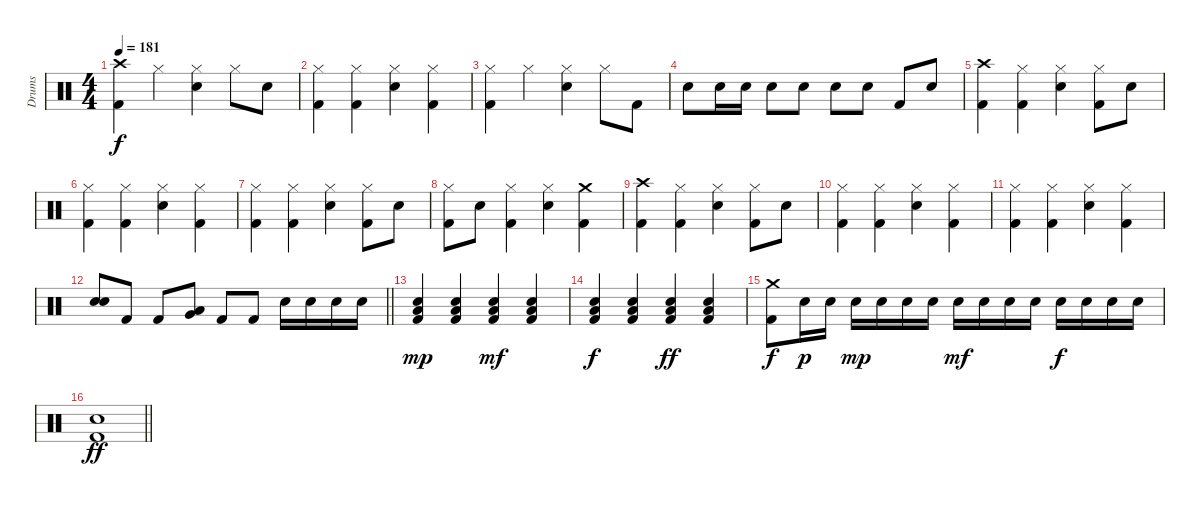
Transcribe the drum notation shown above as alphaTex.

\track ("Drums" "Drums") {instrument percussion}
\staff {score}
\articulation defaults
\ts (4 4)
\tempo 181
\clef neutral
\ks c
("Crash high (hit)" "Kick (hit) 2").4{dy f} "Hi-Hat (closed)".4 ("Hi-Hat (closed)" "Snare (hit) 2").4 "Hi-Hat (closed)".8 "Snare (hit) 2".8 |
("Hi-Hat (closed)" "Kick (hit) 2").4 ("Hi-Hat (closed)" "Kick (hit) 2").4 ("Hi-Hat (closed)" "Snare (hit) 2").4 ("Hi-Hat (closed)" "Kick (hit) 2").4 |
("Hi-Hat (closed)" "Kick (hit) 2").4 "Hi-Hat (closed)".4 ("Hi-Hat (closed)" "Snare (hit) 2").4 "Hi-Hat (closed)".8 "Kick (hit) 2".8 |
"Snare (hit) 2".8 "Snare (hit) 2".16 "Snare (hit) 2".16 "Snare (hit) 2".8 "Snare (hit) 2".8 "Snare (hit) 2".8 "Snare (hit) 2".8 "Kick (hit) 2".8 "Snare (hit) 2".8 |
("Crash high (hit)" "Kick (hit) 2").4 ("Hi-Hat (closed)" "Kick (hit) 2").4 ("Hi-Hat (closed)" "Snare (hit) 2").4 ("Hi-Hat (closed)" "Kick (hit) 2").8 "Snare (hit) 2".8 |
("Hi-Hat (closed)" "Kick (hit) 2").4 ("Hi-Hat (closed)" "Kick (hit) 2").4 ("Hi-Hat (closed)" "Snare (hit) 2").4 ("Hi-Hat (closed)" "Kick (hit) 2").4 |
("Hi-Hat (closed)" "Kick (hit) 2").4 ("Hi-Hat (closed)" "Kick (hit) 2").4 ("Hi-Hat (closed)" "Snare (hit) 2").4 ("Hi-Hat (closed)" "Kick (hit) 2").8 "Snare (hit) 2".8 |
("Hi-Hat (closed)" "Kick (hit) 2").8 "Snare (hit) 2".8 ("Hi-Hat (closed)" "Kick (hit) 2").4 ("Hi-Hat (closed)" "Snare (hit) 2").4 ("Crash medium (hit)" "Kick (hit) 2").4 |
("Crash high (hit)" "Kick (hit) 2").4 ("Hi-Hat (closed)" "Kick (hit) 2").4 ("Hi-Hat (closed)" "Snare (hit) 2").4 ("Hi-Hat (closed)" "Kick (hit) 2").8 "Snare (hit) 2".8 |
("Hi-Hat (closed)" "Kick (hit) 2").4 ("Hi-Hat (closed)" "Kick (hit) 2").4 ("Hi-Hat (closed)" "Snare (hit) 2").4 ("Hi-Hat (closed)" "Kick (hit) 2").4 |
("Hi-Hat (closed)" "Kick (hit) 2").4 ("Hi-Hat (closed)" "Kick (hit) 2").4 ("Hi-Hat (closed)" "Snare (hit) 2").4 ("Hi-Hat (closed)" "Kick (hit) 2").4 |
\barLineRight lightlight
("Snare (hit) 2" "Snare (hit) 2").8 "Kick (hit) 2".8 "Kick (hit) 2".8 ("Very Low Tom (hit)" "Low Tom (hit)").8 "Kick (hit) 2".8 "Kick (hit) 2".8 "Snare (hit) 2".16 "Snare (hit) 2".16 "Snare (hit) 2".16 "Snare (hit) 2".16 |
("Low Floor Tom (hit)" "Snare (hit) 2" "Kick (hit) 2").4{dy mp} ("Low Floor Tom (hit)" "Snare (hit) 2" "Kick (hit) 2").4 ("Low Floor Tom (hit)" "Snare (hit) 2" "Kick (hit) 2").4{dy mf} ("Low Floor Tom (hit)" "Snare (hit) 2" "Kick (hit) 2").4 |
("Low Floor Tom (hit)" "Snare (hit) 2" "Kick (hit) 2").4{dy f} ("Low Floor Tom (hit)" "Snare (hit) 2" "Kick (hit) 2").4 ("Low Floor Tom (hit)" "Snare (hit) 2" "Kick (hit) 2").4{dy ff} ("Low Floor Tom (hit)" "Snare (hit) 2" "Kick (hit) 2").4 |
("Crash medium (hit)" "Kick (hit) 2").8{dy f} "Snare (hit) 2".16{dy p} "Snare (hit) 2".16 "Snare (hit) 2".16{dy mp} "Snare (hit) 2".16 "Snare (hit) 2".16 "Snare (hit) 2".16 "Snare (hit) 2".16{dy mf} "Snare (hit) 2".16 "Snare (hit) 2".16 "Snare (hit) 2".16 "Snare (hit) 2".16{dy f} "Snare (hit) 2".16 "Snare (hit) 2".16 "Snare (hit) 2".16 |
\barLineRight lightlight
("Snare (hit) 2" "Kick (hit) 2").1{dy ff}
